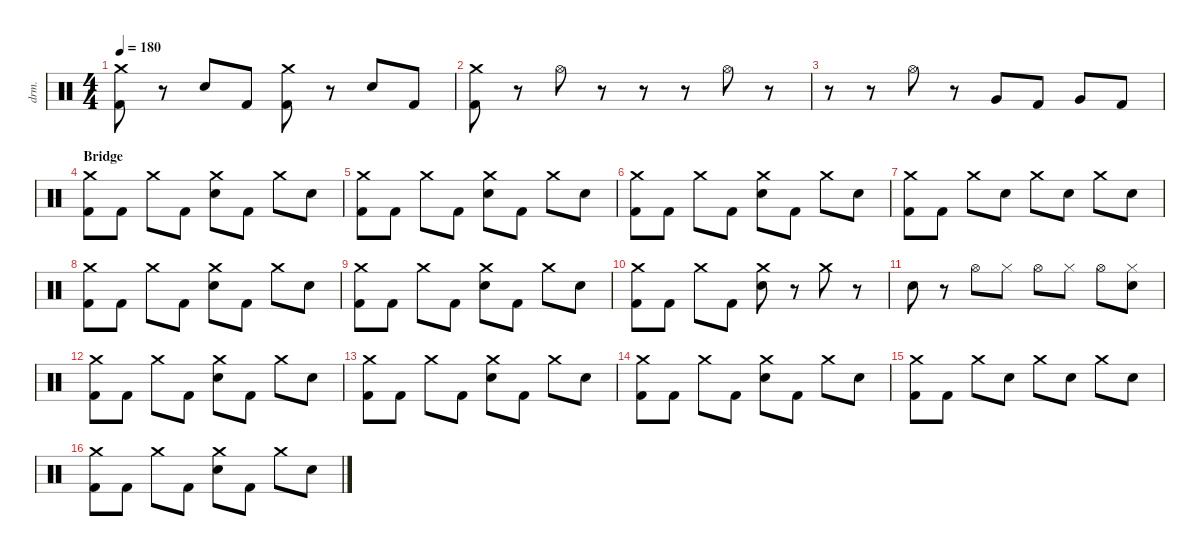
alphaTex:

\defaultSystemsLayout 4
\hideDynamics
\bracketExtendMode nobrackets
\otherSystemsTrackNameOrientation horizontal
\track ("Drums" "drm.") {instrument percussion}
\staff {score}
\articulation defaults
\ts (4 4)
\tempo 180
\clef neutral
\ks c
("Crash medium (hit)" "Kick (hit) 2").8{dy f beam Down} r.8{beam Down} "Snare (hit) 2".8{beam Up} "Kick (hit) 2".8{beam Up} ("Crash medium (hit)" "Kick (hit) 2").8{beam Down} r.8{beam Down} "Snare (hit) 2".8{beam Up} "Kick (hit) 2".8{beam Up} |
("Crash medium (hit)" "Kick (hit) 2").8{beam Down} r.8{beam Down} "Hi-Hat (open)".8{beam Down} r.8{beam Down} r.8{beam Down} r.8{beam Down} "Hi-Hat (open)".8{beam Down} r.8{beam Down} |
r.8{beam Down} r.8{beam Down} "Hi-Hat (open)".8{beam Down} r.8{beam Down} "Very Low Tom (hit)".8{dy ff beam Up} "Kick (hit) 2".8{dy f beam Up} "Very Low Tom (hit)".8{dy ff beam Up} "Kick (hit) 2".8{dy f beam Up} |
\section ("" "Bridge")
("Crash medium (hit)" "Kick (hit) 2").8{beam Down} "Kick (hit) 2".8{beam Down} "Crash medium (hit)".8{beam Down} "Kick (hit) 2".8{beam Down} ("Crash medium (hit)" "Snare (hit) 2").8{beam Down} "Kick (hit) 2".8{beam Down} "Crash medium (hit)".8{beam Down} "Snare (hit) 2".8{beam Down} |
("Crash medium (hit)" "Kick (hit) 2").8{beam Down} "Kick (hit) 2".8{beam Down} "Crash medium (hit)".8{beam Down} "Kick (hit) 2".8{beam Down} ("Crash medium (hit)" "Snare (hit) 2").8{beam Down} "Kick (hit) 2".8{beam Down} "Crash medium (hit)".8{beam Down} "Snare (hit) 2".8{beam Down} |
("Crash medium (hit)" "Kick (hit) 2").8{beam Down} "Kick (hit) 2".8{beam Down} "Crash medium (hit)".8{beam Down} "Kick (hit) 2".8{beam Down} ("Crash medium (hit)" "Snare (hit) 2").8{beam Down} "Kick (hit) 2".8{beam Down} "Crash medium (hit)".8{beam Down} "Snare (hit) 2".8{beam Down} |
("Crash medium (hit)" "Kick (hit) 2").8{beam Down} "Kick (hit) 2".8{beam Down} "Crash medium (hit)".8{beam Down} "Snare (hit) 2".8{beam Down} "Crash medium (hit)".8{beam Down} "Snare (hit) 2".8{beam Down} "Crash medium (hit)".8{beam Down} "Snare (hit) 2".8{beam Down} |
("Crash medium (hit)" "Kick (hit) 2").8{beam Down} "Kick (hit) 2".8{beam Down} "Crash medium (hit)".8{beam Down} "Kick (hit) 2".8{beam Down} ("Crash medium (hit)" "Snare (hit) 2").8{beam Down} "Kick (hit) 2".8{beam Down} "Crash medium (hit)".8{beam Down} "Snare (hit) 2".8{beam Down} |
("Crash medium (hit)" "Kick (hit) 2").8{beam Down} "Kick (hit) 2".8{beam Down} "Crash medium (hit)".8{beam Down} "Kick (hit) 2".8{beam Down} ("Crash medium (hit)" "Snare (hit) 2").8{beam Down} "Kick (hit) 2".8{beam Down} "Crash medium (hit)".8{beam Down} "Snare (hit) 2".8{beam Down} |
("Crash medium (hit)" "Kick (hit) 2").8{beam Down} "Kick (hit) 2".8{beam Down} "Crash medium (hit)".8{beam Down} "Kick (hit) 2".8{beam Down} ("Crash medium (hit)" "Snare (hit) 2").8{beam Down} r.8{beam Down} "Crash medium (hit)".8{beam Down} r.8{beam Down} |
"Snare (hit) 2".8{beam Down} r.8{beam Down} "Hi-Hat (open)".8{beam Down} "Hi-Hat (closed)".8{beam Down} "Hi-Hat (open)".8{beam Down} "Hi-Hat (closed)".8{beam Down} "Hi-Hat (open)".8{beam Down} ("Hi-Hat (closed)" "Snare (hit) 2").8{beam Down} |
("Crash medium (hit)" "Kick (hit) 2").8{beam Down} "Kick (hit) 2".8{beam Down} "Crash medium (hit)".8{beam Down} "Kick (hit) 2".8{beam Down} ("Crash medium (hit)" "Snare (hit) 2").8{beam Down} "Kick (hit) 2".8{beam Down} "Crash medium (hit)".8{beam Down} "Snare (hit) 2".8{beam Down} |
("Crash medium (hit)" "Kick (hit) 2").8{beam Down} "Kick (hit) 2".8{beam Down} "Crash medium (hit)".8{beam Down} "Kick (hit) 2".8{beam Down} ("Crash medium (hit)" "Snare (hit) 2").8{beam Down} "Kick (hit) 2".8{beam Down} "Crash medium (hit)".8{beam Down} "Snare (hit) 2".8{beam Down} |
("Crash medium (hit)" "Kick (hit) 2").8{beam Down} "Kick (hit) 2".8{beam Down} "Crash medium (hit)".8{beam Down} "Kick (hit) 2".8{beam Down} ("Crash medium (hit)" "Snare (hit) 2").8{beam Down} "Kick (hit) 2".8{beam Down} "Crash medium (hit)".8{beam Down} "Snare (hit) 2".8{beam Down} |
("Crash medium (hit)" "Kick (hit) 2").8{beam Down} "Kick (hit) 2".8{beam Down} "Crash medium (hit)".8{beam Down} "Snare (hit) 2".8{beam Down} "Crash medium (hit)".8{beam Down} "Snare (hit) 2".8{beam Down} "Crash medium (hit)".8{beam Down} "Snare (hit) 2".8{beam Down} |
("Crash medium (hit)" "Kick (hit) 2").8{beam Down} "Kick (hit) 2".8{beam Down} "Crash medium (hit)".8{beam Down} "Kick (hit) 2".8{beam Down} ("Crash medium (hit)" "Snare (hit) 2").8{beam Down} "Kick (hit) 2".8{beam Down} "Crash medium (hit)".8{beam Down} "Snare (hit) 2".8{beam Down}
